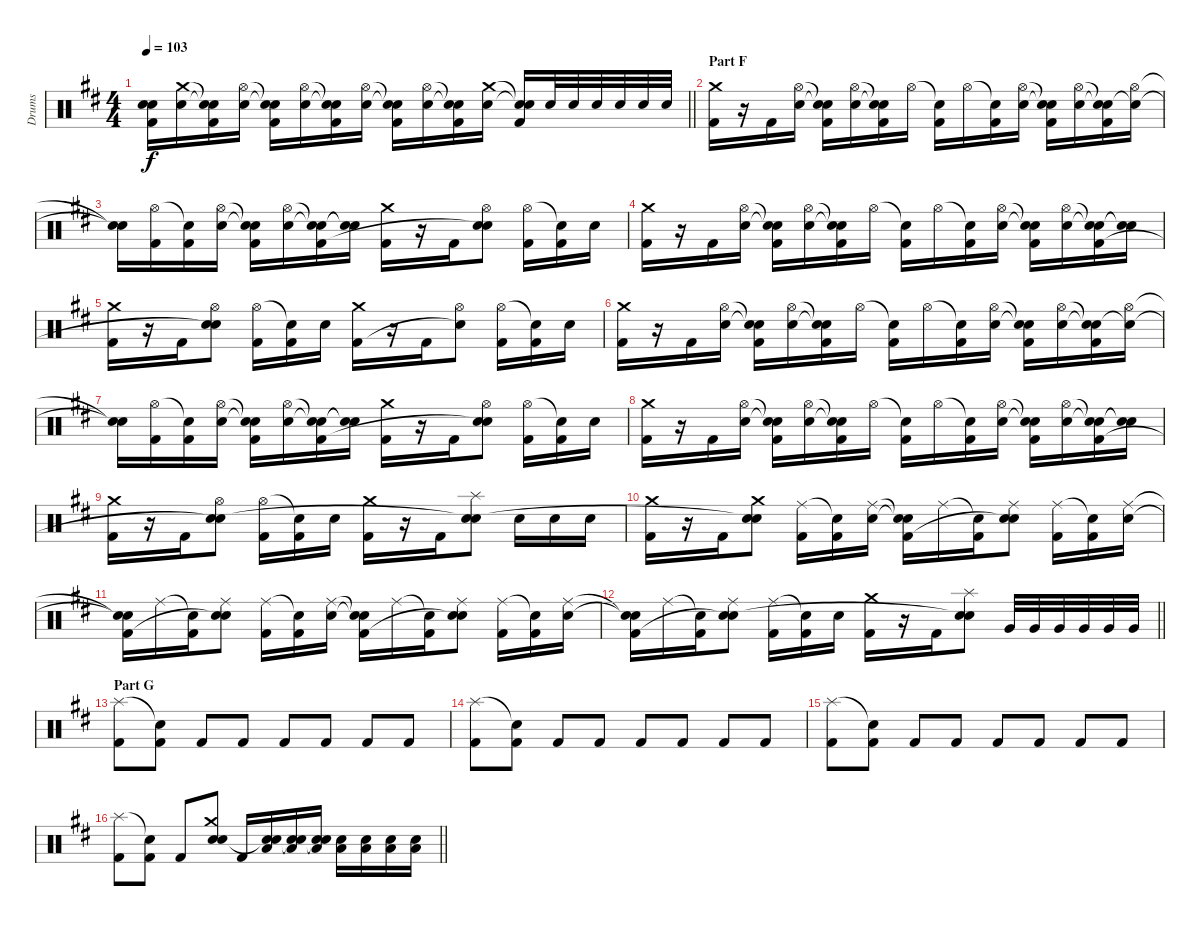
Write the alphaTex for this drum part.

\track ("Drums" "Drums") {instrument percussion}
\staff {score}
\articulation defaults
\ts (4 4)
\tempo 103
\clef neutral
\barLineRight lightlight
\ks d
("Snare (hit)"{t} "Snare (hit)"{t} "Kick (hit) 2").16{dy f} ("Crash medium (hit)" "Electric Snare (hit)").16 ("Snare (hit)"{t} "Snare (hit)"{t} "Kick (hit) 2").16 ("Hi-Hat (open)" "Electric Snare (hit)").16 ("Snare (hit)"{t} "Snare (hit)"{t} "Kick (hit) 2").16 ("Hi-Hat (open)" "Electric Snare (hit)").16 ("Snare (hit)"{t} "Snare (hit)"{t} "Kick (hit) 2").16 ("Hi-Hat (open)" "Electric Snare (hit)").16 ("Snare (hit)"{t} "Snare (hit)"{t} "Kick (hit) 2").16 ("Hi-Hat (open)" "Electric Snare (hit)").16 ("Snare (hit)"{t} "Snare (hit)"{t} "Kick (hit) 2").16 ("Crash medium (hit)" "Electric Snare (hit)").16 ("Snare (hit)"{t} "Snare (hit)"{t} "Kick (hit) 2").16 "Electric Snare (hit)".32 "Electric Snare (hit)".32 "Electric Snare (hit)".32 "Electric Snare (hit)".32 "Electric Snare (hit)".32 "Electric Snare (hit)".32 |
\section ("" "Part F")
("Crash medium (hit)" "Kick (hit) 2").16 r.16 "Kick (hit) 2".16 ("Hi-Hat (open)" "Electric Snare (hit)").16 ("Snare (hit)"{t} "Snare (hit)"{t} "Kick (hit) 2").16 ("Hi-Hat (open)" "Electric Snare (hit)").16 ("Snare (hit)"{t} "Snare (hit)"{t} "Kick (hit) 2").16 "Hi-Hat (open)".16 ("Snare (hit)"{t} "Kick (hit) 2").16 "Hi-Hat (open)".16 ("Snare (hit)"{t} "Kick (hit) 2").16 ("Hi-Hat (open)" "Electric Snare (hit)").16 ("Snare (hit)"{t} "Snare (hit)"{t} "Kick (hit) 2").16 ("Hi-Hat (open)" "Electric Snare (hit)").16 ("Snare (hit)"{t} "Snare (hit)"{t} "Kick (hit) 2").16 ("Hi-Hat (open)" "Snare (hit)"{t}).16 |
("Snare (hit)"{t} "Snare (hit)"{t}).16 ("Hi-Hat (open)" "Kick (hit) 2").16 ("Snare (hit)"{t} "Kick (hit) 2").16 ("Hi-Hat (open)" "Electric Snare (hit)").16 ("Snare (hit)"{t} "Snare (hit)"{t} "Kick (hit) 2").16 ("Hi-Hat (open)" "Electric Snare (hit)").16 ("Snare (hit)"{t} "Snare (hit)"{t} "Kick (hit) 2").16 ("Snare (hit)"{t} "Snare (hit)"{t}).16 ("Crash medium (hit)" "Kick (hit) 2").16 r.16 "Kick (hit) 2".16 ("Hi-Hat (open)" "Electric Snare (hit)" "Snare (hit)"{t}).8 ("Hi-Hat (open)" "Kick (hit) 2").16 ("Snare (hit)"{t} "Kick (hit) 2").16 "Electric Snare (hit)".16 |
("Crash medium (hit)" "Kick (hit) 2").16 r.16 "Kick (hit) 2".16 ("Hi-Hat (open)" "Electric Snare (hit)").16 ("Snare (hit)"{t} "Snare (hit)"{t} "Kick (hit) 2").16 ("Hi-Hat (open)" "Electric Snare (hit)").16 ("Snare (hit)"{t} "Snare (hit)"{t} "Kick (hit) 2").16 "Hi-Hat (open)".16 ("Snare (hit)"{t} "Kick (hit) 2").16 "Hi-Hat (open)".16 ("Snare (hit)"{t} "Kick (hit) 2").16 ("Hi-Hat (open)" "Electric Snare (hit)").16 ("Snare (hit)"{t} "Snare (hit)"{t} "Kick (hit) 2").16 ("Hi-Hat (open)" "Electric Snare (hit)").16 ("Snare (hit)"{t} "Snare (hit)"{t} "Kick (hit) 2").16 ("Snare (hit)"{t} "Snare (hit)"{t}).16 |
("Crash medium (hit)" "Kick (hit) 2").16 r.16 "Kick (hit) 2".16 ("Hi-Hat (open)" "Electric Snare (hit)" "Snare (hit)"{t}).8 ("Hi-Hat (open)" "Kick (hit) 2").16 ("Snare (hit)"{t} "Kick (hit) 2").16 "Electric Snare (hit)".16 ("Crash medium (hit)" "Kick (hit) 2").16 r.16 "Kick (hit) 2".16 ("Hi-Hat (open)" "Snare (hit)"{t}).8 ("Hi-Hat (open)" "Kick (hit) 2").16 ("Snare (hit)"{t} "Kick (hit) 2").16 "Electric Snare (hit)".16 |
("Crash medium (hit)" "Kick (hit) 2").16 r.16 "Kick (hit) 2".16 ("Hi-Hat (open)" "Electric Snare (hit)").16 ("Snare (hit)"{t} "Snare (hit)"{t} "Kick (hit) 2").16 ("Hi-Hat (open)" "Electric Snare (hit)").16 ("Snare (hit)"{t} "Snare (hit)"{t} "Kick (hit) 2").16 "Hi-Hat (open)".16 ("Snare (hit)"{t} "Kick (hit) 2").16 "Hi-Hat (open)".16 ("Snare (hit)"{t} "Kick (hit) 2").16 ("Hi-Hat (open)" "Electric Snare (hit)").16 ("Snare (hit)"{t} "Snare (hit)"{t} "Kick (hit) 2").16 ("Hi-Hat (open)" "Electric Snare (hit)").16 ("Snare (hit)"{t} "Snare (hit)"{t} "Kick (hit) 2").16 ("Hi-Hat (open)" "Snare (hit)"{t}).16 |
("Snare (hit)"{t} "Snare (hit)"{t}).16 ("Hi-Hat (open)" "Kick (hit) 2").16 ("Snare (hit)"{t} "Kick (hit) 2").16 ("Hi-Hat (open)" "Electric Snare (hit)").16 ("Snare (hit)"{t} "Snare (hit)"{t} "Kick (hit) 2").16 ("Hi-Hat (open)" "Electric Snare (hit)").16 ("Snare (hit)"{t} "Snare (hit)"{t} "Kick (hit) 2").16 ("Snare (hit)"{t} "Snare (hit)"{t}).16 ("Crash medium (hit)" "Kick (hit) 2").16 r.16 "Kick (hit) 2".16 ("Hi-Hat (open)" "Electric Snare (hit)" "Snare (hit)"{t}).8 ("Hi-Hat (open)" "Kick (hit) 2").16 ("Snare (hit)"{t} "Kick (hit) 2").16 "Electric Snare (hit)".16 |
("Crash medium (hit)" "Kick (hit) 2").16 r.16 "Kick (hit) 2".16 ("Hi-Hat (open)" "Electric Snare (hit)").16 ("Snare (hit)"{t} "Snare (hit)"{t} "Kick (hit) 2").16 ("Hi-Hat (open)" "Electric Snare (hit)").16 ("Snare (hit)"{t} "Snare (hit)"{t} "Kick (hit) 2").16 "Hi-Hat (open)".16 ("Snare (hit)"{t} "Kick (hit) 2").16 "Hi-Hat (open)".16 ("Snare (hit)"{t} "Kick (hit) 2").16 ("Hi-Hat (open)" "Electric Snare (hit)").16 ("Snare (hit)"{t} "Snare (hit)"{t} "Kick (hit) 2").16 ("Hi-Hat (open)" "Electric Snare (hit)").16 ("Snare (hit)"{t} "Snare (hit)"{t} "Kick (hit) 2").16 ("Snare (hit)"{t} "Snare (hit)"{t}).16 |
("Crash medium (hit)" "Kick (hit) 2").16 r.16 "Kick (hit) 2".16 ("Hi-Hat (open)" "Electric Snare (hit)" "Snare (hit)"{t}).8 ("Hi-Hat (open)" "Kick (hit) 2").16 ("Snare (hit)"{t} "Kick (hit) 2").16 "Electric Snare (hit)".16 ("Crash medium (hit)" "Kick (hit) 2").16 r.16 "Kick (hit) 2".16 ("Splash (hit)" "Electric Snare (hit)" "Snare (hit)"{t}).8 "Electric Snare (hit)".16 "Electric Snare (hit)".16 "Electric Snare (hit)".16 |
("Crash medium (hit)" "Kick (hit) 2").16 r.16 "Kick (hit) 2".16 ("Crash medium (hit)" "Electric Snare (hit)" "Snare (hit)"{t}).8 ("Ride (middle)" "Kick (hit) 2").16 ("Snare (hit)"{t} "Kick (hit) 2").16 ("Ride (middle)" "Electric Snare (hit)").16 ("Snare (hit)"{t} "Snare (hit)"{t} "Kick (hit) 2").16 "Ride (middle)".16 ("Snare (hit)"{t} "Kick (hit) 2").16 ("Ride (middle)" "Electric Snare (hit)" "Snare (hit)"{t}).8 ("Ride (middle)" "Kick (hit) 2").16 ("Snare (hit)"{t} "Kick (hit) 2").16 ("Ride (middle)" "Electric Snare (hit)").16 |
("Snare (hit)"{t} "Snare (hit)"{t} "Kick (hit) 2").16 "Ride (middle)".16 ("Snare (hit)"{t} "Kick (hit) 2").16 ("Ride (middle)" "Electric Snare (hit)" "Snare (hit)"{t}).8 ("Ride (middle)" "Kick (hit) 2").16 ("Snare (hit)"{t} "Kick (hit) 2").16 ("Ride (middle)" "Electric Snare (hit)").16 ("Snare (hit)"{t} "Snare (hit)"{t} "Kick (hit) 2").16 "Ride (middle)".16 ("Snare (hit)"{t} "Kick (hit) 2").16 ("Ride (middle)" "Electric Snare (hit)" "Snare (hit)"{t}).8 ("Ride (middle)" "Kick (hit) 2").16 ("Snare (hit)"{t} "Kick (hit) 2").16 ("Ride (middle)" "Electric Snare (hit)").16 |
\barLineRight lightlight
("Snare (hit)"{t} "Snare (hit)"{t} "Kick (hit) 2").16 "Ride (middle)".16 ("Snare (hit)"{t} "Kick (hit) 2").16 ("Ride (middle)" "Electric Snare (hit)" "Snare (hit)"{t}).8 ("Ride (middle)" "Kick (hit) 2").16 ("Snare (hit)"{t} "Kick (hit) 2").16 "Electric Snare (hit)".16 ("Crash medium (hit)" "Kick (hit) 2").16 r.16 "Kick (hit) 2".16 ("Splash (hit)" "Electric Snare (hit)" "Snare (hit)"{t}).8 "Very Low Tom (hit)".32 "Very Low Tom (hit)".32 "Very Low Tom (hit)".32 "Very Low Tom (hit)".32 "Very Low Tom (hit)".32 "Very Low Tom (hit)".32 |
\section ("" "Part G")
("Splash (hit)" "Kick (hit) 2").8 ("Snare (hit)"{t} "Kick (hit) 2").8 "Kick (hit) 2".8 "Kick (hit) 2".8 "Kick (hit) 2".8 "Kick (hit) 2".8 "Kick (hit) 2".8 "Kick (hit) 2".8 |
("Splash (hit)" "Kick (hit) 2").8 ("Snare (hit)"{t} "Kick (hit) 2").8 "Kick (hit) 2".8 "Kick (hit) 2".8 "Kick (hit) 2".8 "Kick (hit) 2".8 "Kick (hit) 2".8 "Kick (hit) 2".8 |
("Splash (hit)" "Kick (hit) 2").8 ("Snare (hit)"{t} "Kick (hit) 2").8 "Kick (hit) 2".8 "Kick (hit) 2".8 "Kick (hit) 2".8 "Kick (hit) 2".8 "Kick (hit) 2".8 "Kick (hit) 2".8 |
\barLineRight lightlight
("Splash (hit)" "Kick (hit) 2").8 ("Snare (hit)"{t} "Kick (hit) 2").8 "Kick (hit) 2".8 ("Crash medium (hit)" "Electric Snare (hit)" "Snare (hit)").8 "Kick (hit) 2".16 ("Electric Snare (hit)" "Low Floor Tom (hit)" "Snare (hit)"{t}).16 ("Electric Snare (hit)" "Low Floor Tom (hit)" "Snare (hit)"{t}).16 ("Electric Snare (hit)" "Low Floor Tom (hit)" "Snare (hit)"{t}).16 ("Electric Snare (hit)" "Low Floor Tom (hit)").16 ("Electric Snare (hit)" "Low Floor Tom (hit)").16 ("Electric Snare (hit)" "Low Floor Tom (hit)").16 ("Electric Snare (hit)" "Low Floor Tom (hit)").16
